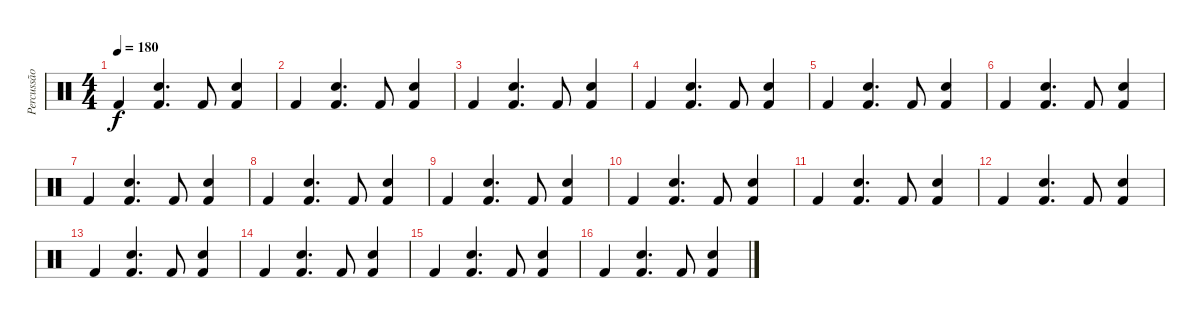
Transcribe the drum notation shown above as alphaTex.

\track ("Percussão" "Percussão") {instrument percussion}
\staff {score}
\articulation defaults
\ts (4 4)
\tempo 180
\clef neutral
\ks c "Kick (hit) 2".4{dy f}
("Kick (hit) 2" "Snare (hit) 2").4{d} "Kick (hit) 2".8 ("Kick (hit) 2" "Snare (hit) 2").4 |
"Kick (hit) 2".4 ("Kick (hit) 2" "Snare (hit) 2").4{d} "Kick (hit) 2".8 ("Kick (hit) 2" "Snare (hit) 2").4 |
"Kick (hit) 2".4 ("Kick (hit) 2" "Snare (hit) 2").4{d} "Kick (hit) 2".8 ("Kick (hit) 2" "Snare (hit) 2").4 |
"Kick (hit) 2".4 ("Kick (hit) 2" "Snare (hit) 2").4{d} "Kick (hit) 2".8 ("Kick (hit) 2" "Snare (hit) 2").4 |
"Kick (hit) 2".4 ("Kick (hit) 2" "Snare (hit) 2").4{d} "Kick (hit) 2".8 ("Kick (hit) 2" "Snare (hit) 2").4 |
"Kick (hit) 2".4 ("Kick (hit) 2" "Snare (hit) 2").4{d} "Kick (hit) 2".8 ("Kick (hit) 2" "Snare (hit) 2").4 |
"Kick (hit) 2".4 ("Kick (hit) 2" "Snare (hit) 2").4{d} "Kick (hit) 2".8 ("Kick (hit) 2" "Snare (hit) 2").4 |
"Kick (hit) 2".4 ("Kick (hit) 2" "Snare (hit) 2").4{d} "Kick (hit) 2".8 ("Kick (hit) 2" "Snare (hit) 2").4 |
"Kick (hit) 2".4 ("Kick (hit) 2" "Snare (hit) 2").4{d} "Kick (hit) 2".8 ("Kick (hit) 2" "Snare (hit) 2").4 |
"Kick (hit) 2".4 ("Kick (hit) 2" "Snare (hit) 2").4{d} "Kick (hit) 2".8 ("Kick (hit) 2" "Snare (hit) 2").4 |
"Kick (hit) 2".4 ("Kick (hit) 2" "Snare (hit) 2").4{d} "Kick (hit) 2".8 ("Kick (hit) 2" "Snare (hit) 2").4 |
"Kick (hit) 2".4 ("Kick (hit) 2" "Snare (hit) 2").4{d} "Kick (hit) 2".8 ("Kick (hit) 2" "Snare (hit) 2").4 |
"Kick (hit) 2".4 ("Kick (hit) 2" "Snare (hit) 2").4{d} "Kick (hit) 2".8 ("Kick (hit) 2" "Snare (hit) 2").4 |
"Kick (hit) 2".4 ("Kick (hit) 2" "Snare (hit) 2").4{d} "Kick (hit) 2".8 ("Kick (hit) 2" "Snare (hit) 2").4 |
"Kick (hit) 2".4 ("Kick (hit) 2" "Snare (hit) 2").4{d} "Kick (hit) 2".8 ("Kick (hit) 2" "Snare (hit) 2").4 |
"Kick (hit) 2".4 ("Kick (hit) 2" "Snare (hit) 2").4{d} "Kick (hit) 2".8 ("Kick (hit) 2" "Snare (hit) 2").4
